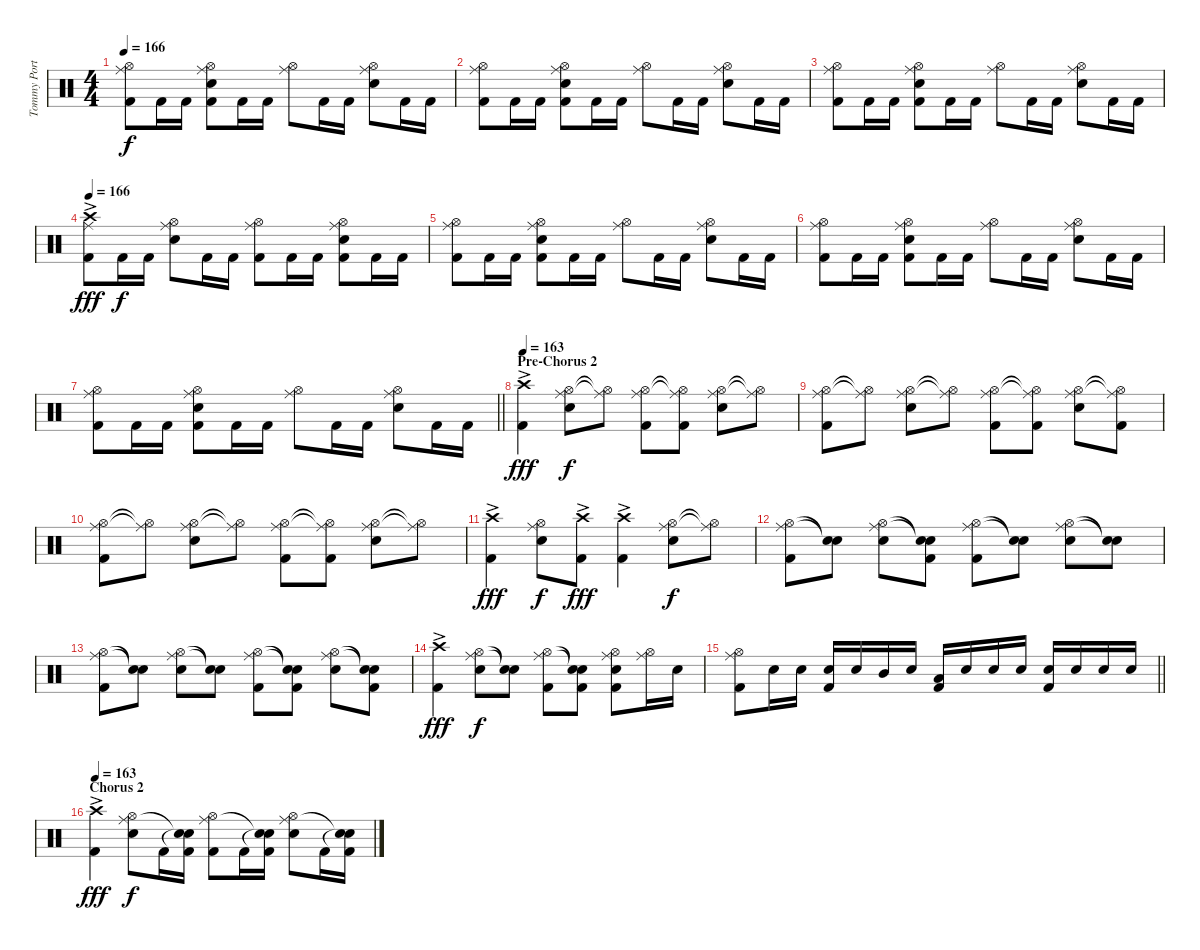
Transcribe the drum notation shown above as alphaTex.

\track ("Tommy Portimo" "Tommy Port") {instrument percussion}
\staff {score}
\articulation defaults
\ts (4 4)
\tempo 166
\clef neutral
\ks c
("Hi-Hat (open)" "Ride (middle)" "Kick (hit) 2").8{dy f} "Kick (hit) 2".16 "Kick (hit) 2".16 ("Hi-Hat (open)" "Ride (middle)" "Electric Snare (hit)" "Kick (hit) 2").8 "Kick (hit) 2".16 "Kick (hit) 2".16 ("Hi-Hat (open)" "Ride (middle)").8 "Kick (hit) 2".16 "Kick (hit) 2".16 ("Hi-Hat (open)" "Ride (middle)" "Electric Snare (hit)").8 "Kick (hit) 2".16 "Kick (hit) 2".16 |
("Hi-Hat (open)" "Ride (middle)" "Kick (hit) 2").8 "Kick (hit) 2".16 "Kick (hit) 2".16 ("Hi-Hat (open)" "Ride (middle)" "Electric Snare (hit)" "Kick (hit) 2").8 "Kick (hit) 2".16 "Kick (hit) 2".16 ("Hi-Hat (open)" "Ride (middle)").8 "Kick (hit) 2".16 "Kick (hit) 2".16 ("Hi-Hat (open)" "Ride (middle)" "Electric Snare (hit)").8 "Kick (hit) 2".16 "Kick (hit) 2".16 |
("Hi-Hat (open)" "Ride (middle)" "Kick (hit) 2").8 "Kick (hit) 2".16 "Kick (hit) 2".16 ("Hi-Hat (open)" "Ride (middle)" "Electric Snare (hit)" "Kick (hit) 2").8 "Kick (hit) 2".16 "Kick (hit) 2".16 ("Hi-Hat (open)" "Ride (middle)").8 "Kick (hit) 2".16 "Kick (hit) 2".16 ("Hi-Hat (open)" "Ride (middle)" "Electric Snare (hit)").8 "Kick (hit) 2".16 "Kick (hit) 2".16 |
\tempo 166
("Crash high (hit)"{ac} "Ride (middle)" "Kick (hit) 2").8{dy fff} "Kick (hit) 2".16{dy f} "Kick (hit) 2".16 ("Hi-Hat (open)" "Ride (middle)" "Electric Snare (hit)").8 "Kick (hit) 2".16 "Kick (hit) 2".16 ("Hi-Hat (open)" "Ride (middle)" "Kick (hit) 2").8 "Kick (hit) 2".16 "Kick (hit) 2".16 ("Hi-Hat (open)" "Ride (middle)" "Electric Snare (hit)" "Kick (hit) 2").8 "Kick (hit) 2".16 "Kick (hit) 2".16 |
("Hi-Hat (open)" "Ride (middle)" "Kick (hit) 2").8 "Kick (hit) 2".16 "Kick (hit) 2".16 ("Hi-Hat (open)" "Ride (middle)" "Electric Snare (hit)" "Kick (hit) 2").8 "Kick (hit) 2".16 "Kick (hit) 2".16 ("Hi-Hat (open)" "Ride (middle)").8 "Kick (hit) 2".16 "Kick (hit) 2".16 ("Hi-Hat (open)" "Ride (middle)" "Electric Snare (hit)").8 "Kick (hit) 2".16 "Kick (hit) 2".16 |
("Hi-Hat (open)" "Ride (middle)" "Kick (hit) 2").8 "Kick (hit) 2".16 "Kick (hit) 2".16 ("Hi-Hat (open)" "Ride (middle)" "Electric Snare (hit)" "Kick (hit) 2").8 "Kick (hit) 2".16 "Kick (hit) 2".16 ("Hi-Hat (open)" "Ride (middle)").8 "Kick (hit) 2".16 "Kick (hit) 2".16 ("Hi-Hat (open)" "Ride (middle)" "Electric Snare (hit)").8 "Kick (hit) 2".16 "Kick (hit) 2".16 |
\barLineRight lightlight
("Hi-Hat (open)" "Ride (middle)" "Kick (hit) 2").8 "Kick (hit) 2".16 "Kick (hit) 2".16 ("Hi-Hat (open)" "Ride (middle)" "Electric Snare (hit)" "Kick (hit) 2").8 "Kick (hit) 2".16 "Kick (hit) 2".16 ("Hi-Hat (open)" "Ride (middle)").8 "Kick (hit) 2".16 "Kick (hit) 2".16 ("Hi-Hat (open)" "Ride (middle)" "Electric Snare (hit)").8 "Kick (hit) 2".16 "Kick (hit) 2".16 |
\section ("" "Pre-Chorus 2")
\tempo 163
("Crash high (hit)"{ac} "Kick (hit) 2").4{dy fff} ("Hi-Hat (open)" "Ride (middle)" "Electric Snare (hit)").8{dy f} ("Hi-Hat (open)"{t} "Ride (middle)"{t}).8 ("Hi-Hat (open)" "Ride (middle)" "Kick (hit) 2").8 ("Hi-Hat (open)"{t} "Ride (middle)"{t} "Kick (hit) 2").8 ("Hi-Hat (open)" "Ride (middle)" "Electric Snare (hit)").8 ("Hi-Hat (open)"{t} "Ride (middle)"{t}).8 |
("Hi-Hat (open)" "Ride (middle)" "Kick (hit) 2").8 ("Hi-Hat (open)"{t} "Ride (middle)"{t}).8 ("Hi-Hat (open)" "Ride (middle)" "Electric Snare (hit)").8 ("Hi-Hat (open)"{t} "Ride (middle)"{t}).8 ("Hi-Hat (open)" "Ride (middle)" "Kick (hit) 2").8 ("Hi-Hat (open)"{t} "Ride (middle)"{t} "Kick (hit) 2").8 ("Hi-Hat (open)" "Ride (middle)" "Electric Snare (hit)").8 ("Hi-Hat (open)"{t} "Ride (middle)"{t} "Kick (hit) 2").8 |
("Hi-Hat (open)" "Ride (middle)" "Kick (hit) 2").8 ("Hi-Hat (open)"{t} "Ride (middle)"{t}).8 ("Hi-Hat (open)" "Ride (middle)" "Electric Snare (hit)").8 ("Hi-Hat (open)"{t} "Ride (middle)"{t}).8 ("Hi-Hat (open)" "Ride (middle)" "Kick (hit) 2").8 ("Hi-Hat (open)"{t} "Ride (middle)"{t} "Kick (hit) 2").8 ("Hi-Hat (open)" "Ride (middle)" "Electric Snare (hit)").8 ("Hi-Hat (open)"{t} "Ride (middle)"{t}).8 |
("Crash high (hit)"{ac} "Kick (hit) 2").4{dy fff} ("Hi-Hat (open)" "Ride (middle)" "Electric Snare (hit)").8{dy f} ("Crash high (hit)"{ac} "Kick (hit) 2").8{dy fff} ("Crash high (hit)"{ac} "Kick (hit) 2").4 ("Hi-Hat (open)" "Ride (middle)" "Electric Snare (hit)").8{dy f} ("Hi-Hat (open)"{t} "Ride (middle)"{t}).8 |
("Hi-Hat (open)" "Ride (middle)" "Kick (hit) 2").8 ("Snare (hit)"{t} "Snare (hit)"{t}).8 ("Hi-Hat (open)" "Ride (middle)" "Electric Snare (hit)").8 ("Snare (hit)"{t} "Snare (hit)"{t} "Kick (hit) 2").8 ("Hi-Hat (open)" "Ride (middle)" "Kick (hit) 2").8 ("Snare (hit)"{t} "Snare (hit)"{t}).8 ("Hi-Hat (open)" "Ride (middle)" "Electric Snare (hit)").8 ("Snare (hit)"{t} "Snare (hit)"{t}).8 |
("Hi-Hat (open)" "Ride (middle)" "Kick (hit) 2").8 ("Snare (hit)"{t} "Snare (hit)"{t}).8 ("Hi-Hat (open)" "Ride (middle)" "Electric Snare (hit)").8 ("Snare (hit)"{t} "Snare (hit)"{t}).8 ("Hi-Hat (open)" "Ride (middle)" "Kick (hit) 2").8 ("Snare (hit)"{t} "Snare (hit)"{t} "Kick (hit) 2").8 ("Hi-Hat (open)" "Ride (middle)" "Electric Snare (hit)").8 ("Snare (hit)"{t} "Snare (hit)"{t} "Kick (hit) 2").8 |
("Crash high (hit)"{ac} "Kick (hit) 2").4{dy fff} ("Hi-Hat (open)" "Ride (middle)" "Electric Snare (hit)").8{dy f} ("Snare (hit)"{t} "Snare (hit)"{t}).8 ("Hi-Hat (open)" "Ride (middle)" "Kick (hit) 2").8 ("Snare (hit)"{t} "Snare (hit)"{t} "Kick (hit) 2").8 ("Hi-Hat (open)" "Ride (middle)" "Electric Snare (hit)" "Kick (hit) 2").8 ("Hi-Hat (open)" "Ride (middle)").16 "Electric Snare (hit)".16 |
\barLineRight lightlight
("Hi-Hat (open)" "Ride (middle)" "Kick (hit) 2").8 "Electric Snare (hit)".16 "Electric Snare (hit)".16 ("Electric Snare (hit)" "Kick (hit) 2").16 "Electric Snare (hit)".16 "Mid Tom (hit)".16 "Electric Snare (hit)".16 ("Low Tom (hit)" "Kick (hit) 2").16 "Electric Snare (hit)".16 "Electric Snare (hit)".16 "Electric Snare (hit)".16 ("Electric Snare (hit)" "Kick (hit) 2").16 "Electric Snare (hit)".16 "Electric Snare (hit)".16 "Electric Snare (hit)".16 |
\section ("" "Chorus 2")
\tempo 163
("Crash high (hit)"{ac} "Kick (hit) 2").4{dy fff} ("Hi-Hat (open)" "Ride (middle)" "Electric Snare (hit)").8{dy f} "Kick (hit) 2".16 ("Snare (hit)"{t} "Snare (hit)"{t} "Kick (hit) 2").16 ("Hi-Hat (open)" "Ride (middle)" "Kick (hit) 2").8 "Kick (hit) 2".16 ("Snare (hit)"{t} "Snare (hit)"{t} "Kick (hit) 2").16 ("Hi-Hat (open)" "Ride (middle)" "Electric Snare (hit)").8 "Kick (hit) 2".16 ("Snare (hit)"{t} "Snare (hit)"{t} "Kick (hit) 2").16
